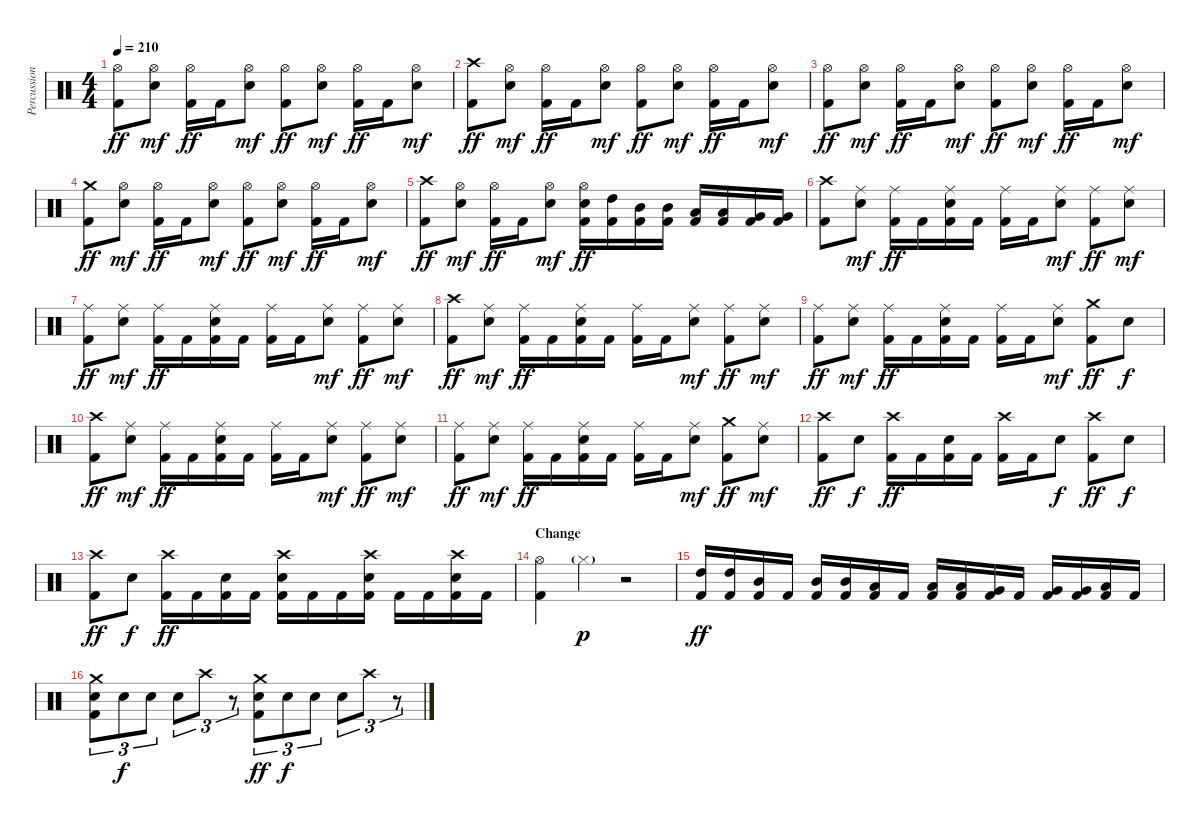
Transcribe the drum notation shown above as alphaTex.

\track ("Percussion" "Percussion") {instrument percussion}
\staff {score}
\articulation defaults
\ts (4 4)
\tempo 210
\clef neutral
\ks c
("Hi-Hat (open)" "Kick (hit) 2").8{dy ff} ("Hi-Hat (open)" "Snare (hit) 2").8{dy mf} ("Hi-Hat (open)" "Kick (hit) 2").16{dy ff} "Kick (hit) 2".16 ("Hi-Hat (open)" "Snare (hit) 2").8{dy mf} ("Hi-Hat (open)" "Kick (hit) 2").8{dy ff} ("Hi-Hat (open)" "Snare (hit) 2").8{dy mf} ("Hi-Hat (open)" "Kick (hit) 2").16{dy ff} "Kick (hit) 2".16 ("Hi-Hat (open)" "Snare (hit) 2").8{dy mf} |
("Crash high (hit)" "Kick (hit) 2").8{dy ff} ("Hi-Hat (open)" "Snare (hit) 2").8{dy mf} ("Hi-Hat (open)" "Kick (hit) 2").16{dy ff} "Kick (hit) 2".16 ("Hi-Hat (open)" "Snare (hit) 2").8{dy mf} ("Hi-Hat (open)" "Kick (hit) 2").8{dy ff} ("Hi-Hat (open)" "Snare (hit) 2").8{dy mf} ("Hi-Hat (open)" "Kick (hit) 2").16{dy ff} "Kick (hit) 2".16 ("Hi-Hat (open)" "Snare (hit) 2").8{dy mf} |
("Hi-Hat (open)" "Kick (hit) 2").8{dy ff} ("Hi-Hat (open)" "Snare (hit) 2").8{dy mf} ("Hi-Hat (open)" "Kick (hit) 2").16{dy ff} "Kick (hit) 2".16 ("Hi-Hat (open)" "Snare (hit) 2").8{dy mf} ("Hi-Hat (open)" "Kick (hit) 2").8{dy ff} ("Hi-Hat (open)" "Snare (hit) 2").8{dy mf} ("Hi-Hat (open)" "Kick (hit) 2").16{dy ff} "Kick (hit) 2".16 ("Hi-Hat (open)" "Snare (hit) 2").8{dy mf} |
("Crash medium (hit)" "Kick (hit) 2").8{dy ff} ("Hi-Hat (open)" "Snare (hit) 2").8{dy mf} ("Hi-Hat (open)" "Kick (hit) 2").16{dy ff} "Kick (hit) 2".16 ("Hi-Hat (open)" "Snare (hit) 2").8{dy mf} ("Hi-Hat (open)" "Kick (hit) 2").8{dy ff} ("Hi-Hat (open)" "Snare (hit) 2").8{dy mf} ("Hi-Hat (open)" "Kick (hit) 2").16{dy ff} "Kick (hit) 2".16 ("Hi-Hat (open)" "Snare (hit) 2").8{dy mf} |
("Crash high (hit)" "Kick (hit) 2").8{dy ff} ("Hi-Hat (open)" "Snare (hit) 2").8{dy mf} ("Hi-Hat (open)" "Kick (hit) 2").16{dy ff} "Kick (hit) 2".16 ("Hi-Hat (open)" "Snare (hit) 2").8{dy mf} ("Hi-Hat (open)" "Snare (hit) 2" "Kick (hit) 2").16{dy ff} ("High Tom (hit)" "Kick (hit) 2").16 ("Mid Tom (hit)" "Kick (hit) 2").16 ("Mid Tom (hit)" "Kick (hit) 2").16 ("Low Tom (hit)" "Kick (hit) 2").16 ("Low Tom (hit)" "Kick (hit) 2").16 ("Very Low Tom (hit)" "Kick (hit) 2").16 ("Very Low Tom (hit)" "Kick (hit) 2").16 |
("Crash high (hit)" "Kick (hit) 2").8 ("Ride (middle)" "Snare (hit) 2").8{dy mf} ("Ride (middle)" "Kick (hit) 2").16{dy ff} "Kick (hit) 2".16 ("Ride (middle)" "Snare (hit) 2" "Kick (hit) 2").16 "Kick (hit) 2".16 ("Ride (middle)" "Kick (hit) 2").16 "Kick (hit) 2".16 ("Ride (middle)" "Snare (hit) 2").8{dy mf} ("Ride (middle)" "Kick (hit) 2").8{dy ff} ("Ride (middle)" "Snare (hit) 2").8{dy mf} |
("Ride (middle)" "Kick (hit) 2").8{dy ff} ("Ride (middle)" "Snare (hit) 2").8{dy mf} ("Ride (middle)" "Kick (hit) 2").16{dy ff} "Kick (hit) 2".16 ("Ride (middle)" "Snare (hit) 2" "Kick (hit) 2").16 "Kick (hit) 2".16 ("Ride (middle)" "Kick (hit) 2").16 "Kick (hit) 2".16 ("Ride (middle)" "Snare (hit) 2").8{dy mf} ("Ride (middle)" "Kick (hit) 2").8{dy ff} ("Ride (middle)" "Snare (hit) 2").8{dy mf} |
("Crash high (hit)" "Kick (hit) 2").8{dy ff} ("Ride (middle)" "Snare (hit) 2").8{dy mf} ("Ride (middle)" "Kick (hit) 2").16{dy ff} "Kick (hit) 2".16 ("Ride (middle)" "Snare (hit) 2" "Kick (hit) 2").16 "Kick (hit) 2".16 ("Ride (middle)" "Kick (hit) 2").16 "Kick (hit) 2".16 ("Ride (middle)" "Snare (hit) 2").8{dy mf} ("Ride (middle)" "Kick (hit) 2").8{dy ff} ("Ride (middle)" "Snare (hit) 2").8{dy mf} |
("Ride (middle)" "Kick (hit) 2").8{dy ff} ("Ride (middle)" "Snare (hit) 2").8{dy mf} ("Ride (middle)" "Kick (hit) 2").16{dy ff} "Kick (hit) 2".16 ("Ride (middle)" "Snare (hit) 2" "Kick (hit) 2").16 "Kick (hit) 2".16 ("Ride (middle)" "Kick (hit) 2").16 "Kick (hit) 2".16 ("Ride (middle)" "Snare (hit) 2").8{dy mf} ("Crash medium (hit)" "Kick (hit) 2").8{dy ff} "Snare (hit) 2".8{dy f} |
("Crash high (hit)" "Kick (hit) 2").8{dy ff} ("Ride (middle)" "Snare (hit) 2").8{dy mf} ("Ride (middle)" "Kick (hit) 2").16{dy ff} "Kick (hit) 2".16 ("Ride (middle)" "Snare (hit) 2" "Kick (hit) 2").16 "Kick (hit) 2".16 ("Ride (middle)" "Kick (hit) 2").16 "Kick (hit) 2".16 ("Ride (middle)" "Snare (hit) 2").8{dy mf} ("Ride (middle)" "Kick (hit) 2").8{dy ff} ("Ride (middle)" "Snare (hit) 2").8{dy mf} |
("Ride (middle)" "Kick (hit) 2").8{dy ff} ("Ride (middle)" "Snare (hit) 2").8{dy mf} ("Ride (middle)" "Kick (hit) 2").16{dy ff} "Kick (hit) 2".16 ("Ride (middle)" "Snare (hit) 2" "Kick (hit) 2").16 "Kick (hit) 2".16 ("Ride (middle)" "Kick (hit) 2").16 "Kick (hit) 2".16 ("Ride (middle)" "Snare (hit) 2").8{dy mf} ("Crash medium (hit)" "Kick (hit) 2").8{dy ff} ("Ride (middle)" "Snare (hit) 2").8{dy mf} |
("Crash high (hit)" "Kick (hit) 2").8{dy ff} "Snare (hit) 2".8{dy f} ("Crash high (hit)" "Kick (hit) 2").16{dy ff} "Kick (hit) 2".16 ("Snare (hit) 2" "Kick (hit) 2").16 "Kick (hit) 2".16 ("Crash high (hit)" "Kick (hit) 2").16 "Kick (hit) 2".16 "Snare (hit) 2".8{dy f} ("Crash high (hit)" "Kick (hit) 2").8{dy ff} "Snare (hit) 2".8{dy f} |
("Crash high (hit)" "Kick (hit) 2").8{dy ff} "Snare (hit) 2".8{dy f} ("Crash high (hit)" "Kick (hit) 2").16{dy ff} "Kick (hit) 2".16 ("Snare (hit) 2" "Kick (hit) 2").16 "Kick (hit) 2".16 ("Crash high (hit)" "Snare (hit) 2" "Kick (hit) 2").16 "Kick (hit) 2".16 "Kick (hit) 2".16 ("Crash high (hit)" "Snare (hit) 2" "Kick (hit) 2").16 "Kick (hit) 2".16 "Kick (hit) 2".16 ("Crash high (hit)" "Snare (hit) 2" "Kick (hit) 2").16 "Kick (hit) 2".16 |
\section ("" "Change")
("Hi-Hat (open)" "Kick (hit) 2").4 "Hi-Hat (closed)"{g}.4{dy p} r.2 |
("High Tom (hit)" "Kick (hit) 2").16{dy ff} ("High Tom (hit)" "Kick (hit) 2").16 ("Mid Tom (hit)" "Kick (hit) 2").16 "Kick (hit) 2".16 ("Mid Tom (hit)" "Kick (hit) 2").16 ("Mid Tom (hit)" "Kick (hit) 2").16 ("Low Tom (hit)" "Kick (hit) 2").16 "Kick (hit) 2".16 ("Low Tom (hit)" "Kick (hit) 2").16 ("Low Tom (hit)" "Kick (hit) 2").16 ("Very Low Tom (hit)" "Kick (hit) 2").16 "Kick (hit) 2".16 ("Very Low Tom (hit)" "Kick (hit) 2").16 ("Very Low Tom (hit)" "Kick (hit) 2").16 ("Low Floor Tom (hit)" "Kick (hit) 2").16 "Kick (hit) 2".16 |
("Crash medium (hit)" "Snare (hit) 2" "Kick (hit) 2").8{tu (3 2)} "Snare (hit) 2".8{tu (3 2) dy f} "Snare (hit) 2".8{tu (3 2)} "Snare (hit) 2".8{tu (3 2)} "Crash high (hit)".8{tu (3 2)} r.8{tu (3 2)} ("Crash medium (hit)" "Snare (hit) 2" "Kick (hit) 2").8{tu (3 2) dy ff} "Snare (hit) 2".8{tu (3 2) dy f} "Snare (hit) 2".8{tu (3 2)} "Snare (hit) 2".8{tu (3 2)} "Crash high (hit)".8{tu (3 2)} r.8{tu (3 2)}
